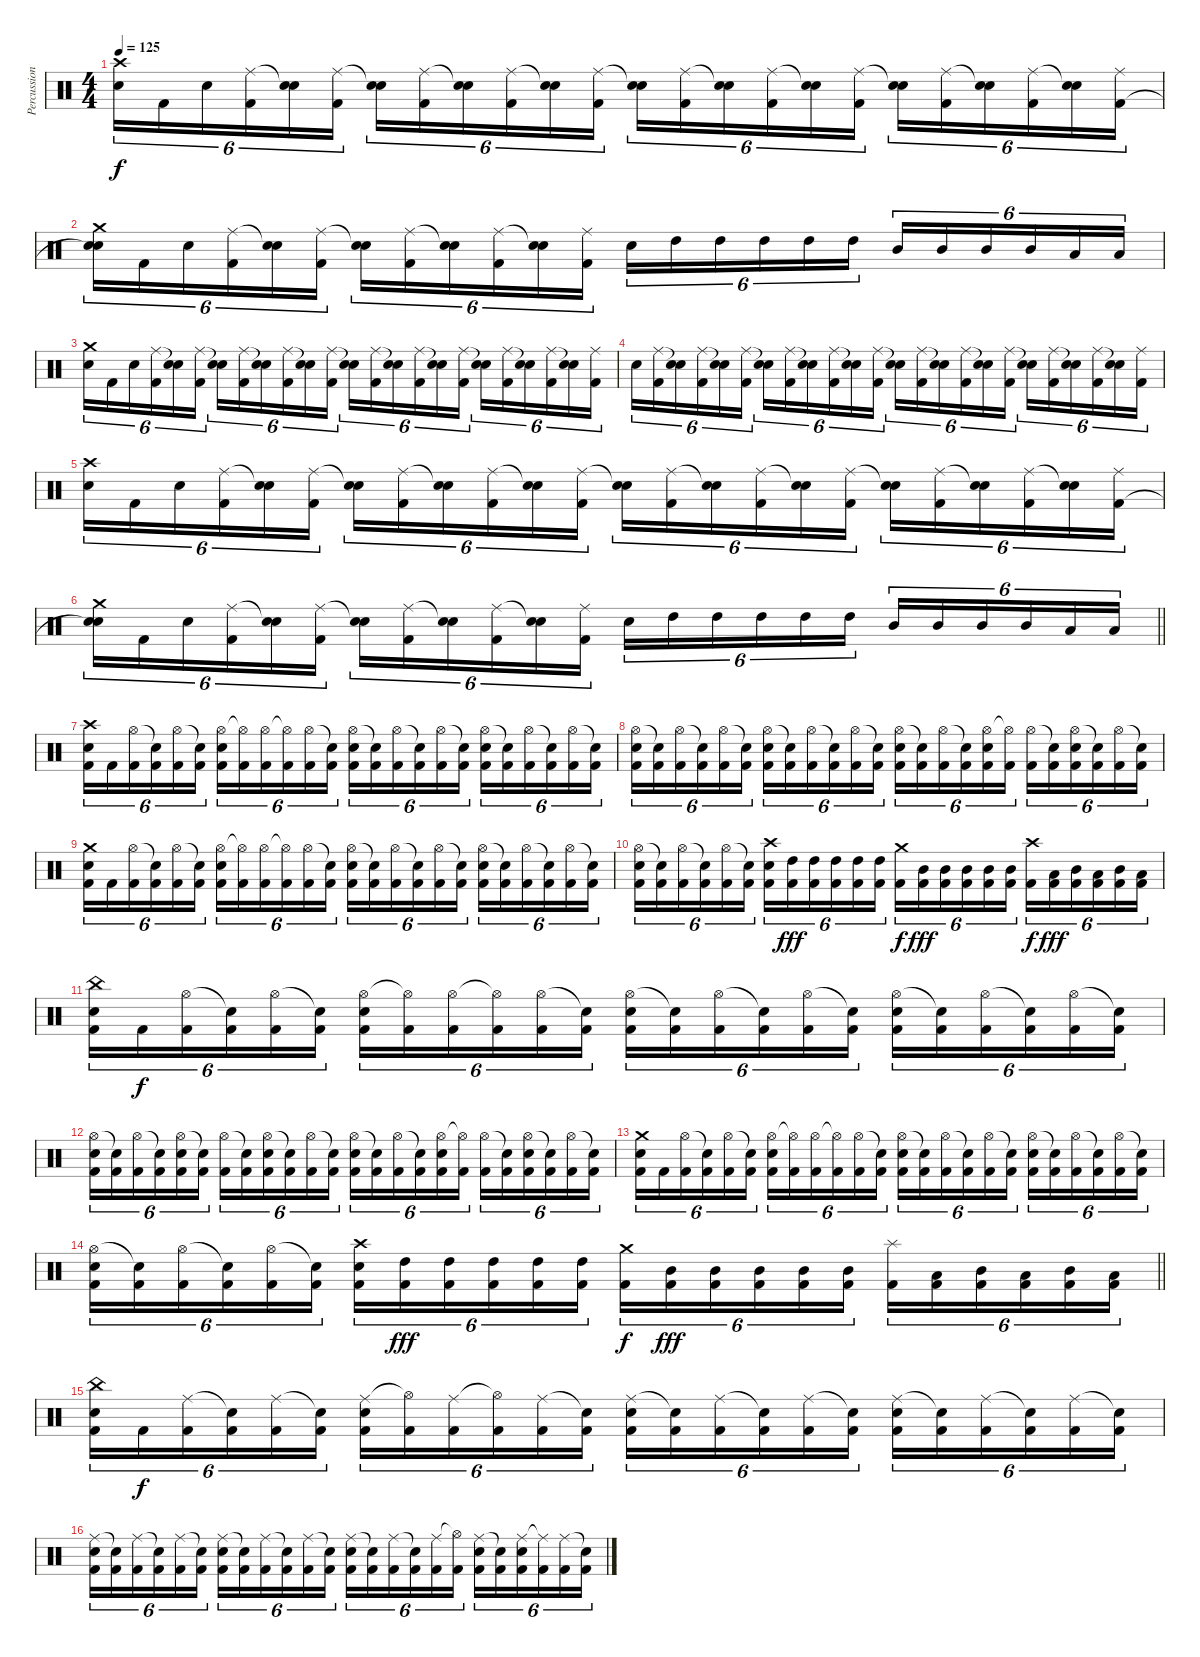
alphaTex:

\track ("Percussion" "Percussion") {instrument percussion}
\staff {score}
\articulation defaults
\ts (4 4)
\tempo 125
\clef neutral
\ks c
("Crash high (hit)" "Snare (hit) 2").16{tu (6 4) dy f} "Kick (hit) 2".16{tu (6 4)} "Snare (hit) 2".16{tu (6 4)} ("Ride (middle)" "Kick (hit) 2").16{tu (6 4)} ("Snare (hit)"{t} "Snare (hit) 2").16{tu (6 4)} ("Ride (middle)" "Kick (hit) 2").16{tu (6 4)} ("Snare (hit)"{t} "Snare (hit) 2").16{tu (6 4)} ("Ride (middle)" "Kick (hit) 2").16{tu (6 4)} ("Snare (hit)"{t} "Snare (hit) 2").16{tu (6 4)} ("Ride (middle)" "Kick (hit) 2").16{tu (6 4)} ("Snare (hit)"{t} "Snare (hit) 2").16{tu (6 4)} ("Ride (middle)" "Kick (hit) 2").16{tu (6 4)} ("Snare (hit)"{t} "Snare (hit) 2").16{tu (6 4)} ("Ride (middle)" "Kick (hit) 2").16{tu (6 4)} ("Snare (hit)"{t} "Snare (hit) 2").16{tu (6 4)} ("Ride (middle)" "Kick (hit) 2").16{tu (6 4)} ("Snare (hit)"{t} "Snare (hit) 2").16{tu (6 4)} ("Ride (middle)" "Kick (hit) 2").16{tu (6 4)} ("Snare (hit)"{t} "Snare (hit) 2").16{tu (6 4)} ("Ride (middle)" "Kick (hit) 2").16{tu (6 4)} ("Snare (hit)"{t} "Snare (hit) 2").16{tu (6 4)} ("Ride (middle)" "Kick (hit) 2").16{tu (6 4)} ("Snare (hit)"{t} "Snare (hit) 2").16{tu (6 4)} ("Ride (middle)" "Kick (hit) 2").16{tu (6 4)} |
("Crash medium (hit)" "Snare (hit)"{t} "Snare (hit) 2").16{tu (6 4)} "Kick (hit) 2".16{tu (6 4)} "Snare (hit) 2".16{tu (6 4)} ("Ride (middle)" "Kick (hit) 2").16{tu (6 4)} ("Snare (hit)"{t} "Snare (hit) 2").16{tu (6 4)} ("Ride (middle)" "Kick (hit) 2").16{tu (6 4)} ("Snare (hit)"{t} "Snare (hit) 2").16{tu (6 4)} ("Ride (middle)" "Kick (hit) 2").16{tu (6 4)} ("Snare (hit)"{t} "Snare (hit) 2").16{tu (6 4)} ("Ride (middle)" "Kick (hit) 2").16{tu (6 4)} ("Snare (hit)"{t} "Snare (hit) 2").16{tu (6 4)} ("Ride (middle)" "Kick (hit) 2").16{tu (6 4)} "Snare (hit) 2".16{tu (6 4)} "High Tom (hit)".16{tu (6 4)} "High Tom (hit)".16{tu (6 4)} "High Tom (hit)".16{tu (6 4)} "High Tom (hit)".16{tu (6 4)} "High Tom (hit)".16{tu (6 4)} "Mid Tom (hit)".16{tu (6 4)} "Mid Tom (hit)".16{tu (6 4)} "Mid Tom (hit)".16{tu (6 4)} "Mid Tom (hit)".16{tu (6 4)} "Low Tom (hit)".16{tu (6 4)} "Low Tom (hit)".16{tu (6 4)} |
("Crash medium (hit)" "Snare (hit) 2").16{tu (6 4)} "Kick (hit) 2".16{tu (6 4)} "Snare (hit) 2".16{tu (6 4)} ("Ride (middle)" "Kick (hit) 2").16{tu (6 4)} ("Snare (hit) 2"{t} "Snare (hit) 2").16{tu (6 4)} ("Ride (middle)" "Kick (hit) 2").16{tu (6 4)} ("Snare (hit) 2"{t} "Snare (hit) 2").16{tu (6 4)} ("Ride (middle)" "Kick (hit) 2").16{tu (6 4)} ("Snare (hit) 2"{t} "Snare (hit) 2").16{tu (6 4)} ("Ride (middle)" "Kick (hit) 2").16{tu (6 4)} ("Snare (hit) 2"{t} "Snare (hit) 2").16{tu (6 4)} ("Ride (middle)" "Kick (hit) 2").16{tu (6 4)} ("Snare (hit) 2"{t} "Snare (hit) 2").16{tu (6 4)} ("Ride (middle)" "Kick (hit) 2").16{tu (6 4)} ("Snare (hit) 2"{t} "Snare (hit) 2").16{tu (6 4)} ("Ride (middle)" "Kick (hit) 2").16{tu (6 4)} ("Snare (hit) 2"{t} "Snare (hit) 2").16{tu (6 4)} ("Ride (middle)" "Kick (hit) 2").16{tu (6 4)} ("Snare (hit) 2"{t} "Snare (hit) 2").16{tu (6 4)} ("Ride (middle)" "Kick (hit) 2").16{tu (6 4)} ("Snare (hit) 2"{t} "Snare (hit) 2").16{tu (6 4)} ("Ride (middle)" "Kick (hit) 2").16{tu (6 4)} ("Snare (hit) 2"{t} "Snare (hit) 2").16{tu (6 4)} ("Ride (middle)" "Kick (hit) 2").16{tu (6 4)} |
"Snare (hit) 2".16{tu (6 4)} ("Ride (middle)" "Kick (hit) 2").16{tu (6 4)} ("Snare (hit) 2"{t} "Snare (hit) 2").16{tu (6 4)} ("Ride (middle)" "Kick (hit) 2").16{tu (6 4)} ("Snare (hit) 2"{t} "Snare (hit) 2").16{tu (6 4)} ("Ride (middle)" "Kick (hit) 2").16{tu (6 4)} ("Snare (hit) 2"{t} "Snare (hit) 2").16{tu (6 4)} ("Ride (middle)" "Kick (hit) 2").16{tu (6 4)} ("Snare (hit) 2"{t} "Snare (hit) 2").16{tu (6 4)} ("Ride (middle)" "Kick (hit) 2").16{tu (6 4)} ("Snare (hit) 2"{t} "Snare (hit) 2").16{tu (6 4)} ("Ride (middle)" "Kick (hit) 2").16{tu (6 4)} ("Snare (hit) 2"{t} "Snare (hit) 2").16{tu (6 4)} ("Ride (middle)" "Kick (hit) 2").16{tu (6 4)} ("Snare (hit) 2"{t} "Snare (hit) 2").16{tu (6 4)} ("Ride (middle)" "Kick (hit) 2").16{tu (6 4)} ("Snare (hit) 2"{t} "Snare (hit) 2").16{tu (6 4)} ("Ride (middle)" "Kick (hit) 2").16{tu (6 4)} ("Snare (hit) 2"{t} "Snare (hit) 2").16{tu (6 4)} ("Ride (middle)" "Kick (hit) 2").16{tu (6 4)} ("Snare (hit) 2"{t} "Snare (hit) 2").16{tu (6 4)} ("Ride (middle)" "Kick (hit) 2").16{tu (6 4)} ("Snare (hit) 2"{t} "Snare (hit) 2").16{tu (6 4)} ("Ride (middle)" "Kick (hit) 2").16{tu (6 4)} |
("Crash high (hit)" "Snare (hit) 2").16{tu (6 4)} "Kick (hit) 2".16{tu (6 4)} "Snare (hit) 2".16{tu (6 4)} ("Ride (middle)" "Kick (hit) 2").16{tu (6 4)} ("Snare (hit)"{t} "Snare (hit) 2").16{tu (6 4)} ("Ride (middle)" "Kick (hit) 2").16{tu (6 4)} ("Snare (hit)"{t} "Snare (hit) 2").16{tu (6 4)} ("Ride (middle)" "Kick (hit) 2").16{tu (6 4)} ("Snare (hit)"{t} "Snare (hit) 2").16{tu (6 4)} ("Ride (middle)" "Kick (hit) 2").16{tu (6 4)} ("Snare (hit)"{t} "Snare (hit) 2").16{tu (6 4)} ("Ride (middle)" "Kick (hit) 2").16{tu (6 4)} ("Snare (hit)"{t} "Snare (hit) 2").16{tu (6 4)} ("Ride (middle)" "Kick (hit) 2").16{tu (6 4)} ("Snare (hit)"{t} "Snare (hit) 2").16{tu (6 4)} ("Ride (middle)" "Kick (hit) 2").16{tu (6 4)} ("Snare (hit)"{t} "Snare (hit) 2").16{tu (6 4)} ("Ride (middle)" "Kick (hit) 2").16{tu (6 4)} ("Snare (hit)"{t} "Snare (hit) 2").16{tu (6 4)} ("Ride (middle)" "Kick (hit) 2").16{tu (6 4)} ("Snare (hit)"{t} "Snare (hit) 2").16{tu (6 4)} ("Ride (middle)" "Kick (hit) 2").16{tu (6 4)} ("Snare (hit)"{t} "Snare (hit) 2").16{tu (6 4)} ("Ride (middle)" "Kick (hit) 2").16{tu (6 4)} |
\barLineRight lightlight
("Crash medium (hit)" "Snare (hit)"{t} "Snare (hit) 2").16{tu (6 4)} "Kick (hit) 2".16{tu (6 4)} "Snare (hit) 2".16{tu (6 4)} ("Ride (middle)" "Kick (hit) 2").16{tu (6 4)} ("Snare (hit)"{t} "Snare (hit) 2").16{tu (6 4)} ("Ride (middle)" "Kick (hit) 2").16{tu (6 4)} ("Snare (hit)"{t} "Snare (hit) 2").16{tu (6 4)} ("Ride (middle)" "Kick (hit) 2").16{tu (6 4)} ("Snare (hit)"{t} "Snare (hit) 2").16{tu (6 4)} ("Ride (middle)" "Kick (hit) 2").16{tu (6 4)} ("Snare (hit)"{t} "Snare (hit) 2").16{tu (6 4)} ("Ride (middle)" "Kick (hit) 2").16{tu (6 4)} "Snare (hit) 2".16{tu (6 4)} "High Tom (hit)".16{tu (6 4)} "High Tom (hit)".16{tu (6 4)} "High Tom (hit)".16{tu (6 4)} "High Tom (hit)".16{tu (6 4)} "High Tom (hit)".16{tu (6 4)} "Mid Tom (hit)".16{tu (6 4)} "Mid Tom (hit)".16{tu (6 4)} "Mid Tom (hit)".16{tu (6 4)} "Mid Tom (hit)".16{tu (6 4)} "Low Tom (hit)".16{tu (6 4)} "Low Tom (hit)".16{tu (6 4)} |
("Crash high (hit)" "Snare (hit) 2" "Kick (hit) 2").16{tu (6 4)} "Kick (hit) 2".16{tu (6 4)} ("Hi-Hat (open)" "Kick (hit) 2").16{tu (6 4)} ("Snare (hit)"{t} "Kick (hit) 2").16{tu (6 4)} ("Hi-Hat (open)" "Kick (hit) 2").16{tu (6 4)} ("Snare (hit)"{t} "Kick (hit) 2").16{tu (6 4)} ("Hi-Hat (open)" "Snare (hit) 2" "Kick (hit) 2").16{tu (6 4)} ("Hi-Hat (open)"{t} "Kick (hit) 2").16{tu (6 4)} ("Hi-Hat (open)" "Kick (hit) 2").16{tu (6 4)} ("Hi-Hat (open)"{t} "Kick (hit) 2").16{tu (6 4)} ("Hi-Hat (open)" "Kick (hit) 2").16{tu (6 4)} ("Snare (hit)"{t} "Kick (hit) 2").16{tu (6 4)} ("Hi-Hat (open)" "Snare (hit) 2" "Kick (hit) 2").16{tu (6 4)} ("Snare (hit)"{t} "Kick (hit) 2").16{tu (6 4)} ("Hi-Hat (open)" "Kick (hit) 2").16{tu (6 4)} ("Snare (hit)"{t} "Kick (hit) 2").16{tu (6 4)} ("Hi-Hat (open)" "Kick (hit) 2").16{tu (6 4)} ("Snare (hit)"{t} "Kick (hit) 2").16{tu (6 4)} ("Hi-Hat (open)" "Snare (hit) 2" "Kick (hit) 2").16{tu (6 4)} ("Snare (hit)"{t} "Kick (hit) 2").16{tu (6 4)} ("Hi-Hat (open)" "Kick (hit) 2").16{tu (6 4)} ("Snare (hit)"{t} "Kick (hit) 2").16{tu (6 4)} ("Hi-Hat (open)" "Kick (hit) 2").16{tu (6 4)} ("Snare (hit)"{t} "Kick (hit) 2").16{tu (6 4)} |
("Hi-Hat (open)" "Snare (hit) 2" "Kick (hit) 2").16{tu (6 4)} ("Snare (hit)"{t} "Kick (hit) 2").16{tu (6 4)} ("Hi-Hat (open)" "Kick (hit) 2").16{tu (6 4)} ("Snare (hit)"{t} "Kick (hit) 2").16{tu (6 4)} ("Hi-Hat (open)" "Kick (hit) 2").16{tu (6 4)} ("Snare (hit)"{t} "Kick (hit) 2").16{tu (6 4)} ("Hi-Hat (open)" "Snare (hit) 2" "Kick (hit) 2").16{tu (6 4)} ("Snare (hit)"{t} "Kick (hit) 2").16{tu (6 4)} ("Hi-Hat (open)" "Kick (hit) 2").16{tu (6 4)} ("Snare (hit)"{t} "Kick (hit) 2").16{tu (6 4)} ("Hi-Hat (open)" "Kick (hit) 2").16{tu (6 4)} ("Snare (hit)"{t} "Kick (hit) 2").16{tu (6 4)} ("Hi-Hat (open)" "Snare (hit) 2" "Kick (hit) 2").16{tu (6 4)} ("Snare (hit)"{t} "Kick (hit) 2").16{tu (6 4)} ("Hi-Hat (open)" "Kick (hit) 2").16{tu (6 4)} ("Snare (hit)"{t} "Kick (hit) 2").16{tu (6 4)} ("Hi-Hat (open)" "Snare (hit) 2" "Kick (hit) 2").16{tu (6 4)} ("Hi-Hat (open)"{t} "Kick (hit) 2").16{tu (6 4)} ("Hi-Hat (open)" "Kick (hit) 2").16{tu (6 4)} ("Snare (hit)"{t} "Kick (hit) 2").16{tu (6 4)} ("Hi-Hat (open)" "Snare (hit) 2" "Kick (hit) 2").16{tu (6 4)} ("Snare (hit)"{t} "Kick (hit) 2").16{tu (6 4)} ("Hi-Hat (open)" "Kick (hit) 2").16{tu (6 4)} ("Snare (hit)"{t} "Kick (hit) 2").16{tu (6 4)} |
("Crash medium (hit)" "Snare (hit) 2" "Kick (hit) 2").16{tu (6 4)} "Kick (hit) 2".16{tu (6 4)} ("Hi-Hat (open)" "Kick (hit) 2").16{tu (6 4)} ("Snare (hit)"{t} "Kick (hit) 2").16{tu (6 4)} ("Hi-Hat (open)" "Kick (hit) 2").16{tu (6 4)} ("Snare (hit)"{t} "Kick (hit) 2").16{tu (6 4)} ("Hi-Hat (open)" "Snare (hit) 2" "Kick (hit) 2").16{tu (6 4)} ("Hi-Hat (open)"{t} "Kick (hit) 2").16{tu (6 4)} ("Hi-Hat (open)" "Kick (hit) 2").16{tu (6 4)} ("Hi-Hat (open)"{t} "Kick (hit) 2").16{tu (6 4)} ("Hi-Hat (open)" "Kick (hit) 2").16{tu (6 4)} ("Snare (hit)"{t} "Kick (hit) 2").16{tu (6 4)} ("Hi-Hat (open)" "Snare (hit) 2" "Kick (hit) 2").16{tu (6 4)} ("Snare (hit)"{t} "Kick (hit) 2").16{tu (6 4)} ("Hi-Hat (open)" "Kick (hit) 2").16{tu (6 4)} ("Snare (hit)"{t} "Kick (hit) 2").16{tu (6 4)} ("Hi-Hat (open)" "Kick (hit) 2").16{tu (6 4)} ("Snare (hit)"{t} "Kick (hit) 2").16{tu (6 4)} ("Hi-Hat (open)" "Snare (hit) 2" "Kick (hit) 2").16{tu (6 4)} ("Snare (hit)"{t} "Kick (hit) 2").16{tu (6 4)} ("Hi-Hat (open)" "Kick (hit) 2").16{tu (6 4)} ("Snare (hit)"{t} "Kick (hit) 2").16{tu (6 4)} ("Hi-Hat (open)" "Kick (hit) 2").16{tu (6 4)} ("Snare (hit)"{t} "Kick (hit) 2").16{tu (6 4)} |
("Hi-Hat (open)" "Snare (hit) 2" "Kick (hit) 2").16{tu (6 4)} ("Snare (hit)"{t} "Kick (hit) 2").16{tu (6 4)} ("Hi-Hat (open)" "Kick (hit) 2").16{tu (6 4)} ("Snare (hit)"{t} "Kick (hit) 2").16{tu (6 4)} ("Hi-Hat (open)" "Kick (hit) 2").16{tu (6 4)} ("Snare (hit)"{t} "Kick (hit) 2").16{tu (6 4)} ("Crash high (hit)" "Snare (hit) 2" "Kick (hit) 2").16{tu (6 4)} ("High Tom (hit)" "Kick (hit) 2").16{tu (6 4) dy fff} ("High Tom (hit)" "Kick (hit) 2").16{tu (6 4)} ("High Tom (hit)" "Kick (hit) 2").16{tu (6 4)} ("High Tom (hit)" "Kick (hit) 2").16{tu (6 4)} ("High Tom (hit)" "Kick (hit) 2").16{tu (6 4)} ("Crash medium (hit)" "Kick (hit) 2").16{tu (6 4) dy f} ("Mid Tom (hit)" "Kick (hit) 2").16{tu (6 4) dy fff} ("Mid Tom (hit)" "Kick (hit) 2").16{tu (6 4)} ("Mid Tom (hit)" "Kick (hit) 2").16{tu (6 4)} ("Mid Tom (hit)" "Kick (hit) 2").16{tu (6 4)} ("Mid Tom (hit)" "Kick (hit) 2").16{tu (6 4)} ("Crash high (hit)" "Kick (hit) 2").16{tu (6 4) dy f} ("Low Tom (hit)" "Kick (hit) 2").16{tu (6 4) dy fff} ("Mid Tom (hit)" "Kick (hit) 2").16{tu (6 4)} ("Low Tom (hit)" "Kick (hit) 2").16{tu (6 4)} ("Mid Tom (hit)" "Kick (hit) 2").16{tu (6 4)} ("Low Tom (hit)" "Kick (hit) 2").16{tu (6 4)} |
("China (hit)" "Snare (hit) 2" "Kick (hit) 2").16{tu (6 4)} "Kick (hit) 2".16{tu (6 4) dy f} ("Hi-Hat (open)" "Kick (hit) 2").16{tu (6 4)} ("Snare (hit)"{t} "Kick (hit) 2").16{tu (6 4)} ("Hi-Hat (open)" "Kick (hit) 2").16{tu (6 4)} ("Snare (hit)"{t} "Kick (hit) 2").16{tu (6 4)} ("Hi-Hat (open)" "Snare (hit) 2" "Kick (hit) 2").16{tu (6 4)} ("Hi-Hat (open)"{t} "Kick (hit) 2").16{tu (6 4)} ("Hi-Hat (open)" "Kick (hit) 2").16{tu (6 4)} ("Hi-Hat (open)"{t} "Kick (hit) 2").16{tu (6 4)} ("Hi-Hat (open)" "Kick (hit) 2").16{tu (6 4)} ("Snare (hit)"{t} "Kick (hit) 2").16{tu (6 4)} ("Hi-Hat (open)" "Snare (hit) 2" "Kick (hit) 2").16{tu (6 4)} ("Snare (hit)"{t} "Kick (hit) 2").16{tu (6 4)} ("Hi-Hat (open)" "Kick (hit) 2").16{tu (6 4)} ("Snare (hit)"{t} "Kick (hit) 2").16{tu (6 4)} ("Hi-Hat (open)" "Kick (hit) 2").16{tu (6 4)} ("Snare (hit)"{t} "Kick (hit) 2").16{tu (6 4)} ("Hi-Hat (open)" "Snare (hit) 2" "Kick (hit) 2").16{tu (6 4)} ("Snare (hit)"{t} "Kick (hit) 2").16{tu (6 4)} ("Hi-Hat (open)" "Kick (hit) 2").16{tu (6 4)} ("Snare (hit)"{t} "Kick (hit) 2").16{tu (6 4)} ("Hi-Hat (open)" "Kick (hit) 2").16{tu (6 4)} ("Snare (hit)"{t} "Kick (hit) 2").16{tu (6 4)} |
("Hi-Hat (open)" "Snare (hit) 2" "Kick (hit) 2").16{tu (6 4)} ("Snare (hit)"{t} "Kick (hit) 2").16{tu (6 4)} ("Hi-Hat (open)" "Kick (hit) 2").16{tu (6 4)} ("Snare (hit)"{t} "Kick (hit) 2").16{tu (6 4)} ("Hi-Hat (open)" "Snare (hit) 2" "Kick (hit) 2").16{tu (6 4)} ("Snare (hit)"{t} "Kick (hit) 2").16{tu (6 4)} ("Hi-Hat (open)" "Kick (hit) 2").16{tu (6 4)} ("Snare (hit)"{t} "Kick (hit) 2").16{tu (6 4)} ("Hi-Hat (open)" "Snare (hit) 2" "Kick (hit) 2").16{tu (6 4)} ("Snare (hit)"{t} "Kick (hit) 2").16{tu (6 4)} ("Hi-Hat (open)" "Kick (hit) 2").16{tu (6 4)} ("Snare (hit)"{t} "Kick (hit) 2").16{tu (6 4)} ("Hi-Hat (open)" "Snare (hit) 2" "Kick (hit) 2").16{tu (6 4)} ("Snare (hit)"{t} "Kick (hit) 2").16{tu (6 4)} ("Hi-Hat (open)" "Kick (hit) 2").16{tu (6 4)} ("Snare (hit)"{t} "Kick (hit) 2").16{tu (6 4)} ("Hi-Hat (open)" "Snare (hit) 2" "Kick (hit) 2").16{tu (6 4)} ("Hi-Hat (open)"{t} "Kick (hit) 2").16{tu (6 4)} ("Hi-Hat (open)" "Kick (hit) 2").16{tu (6 4)} ("Snare (hit)"{t} "Kick (hit) 2").16{tu (6 4)} ("Hi-Hat (open)" "Snare (hit) 2" "Kick (hit) 2").16{tu (6 4)} ("Snare (hit)"{t} "Kick (hit) 2").16{tu (6 4)} ("Hi-Hat (open)" "Kick (hit) 2").16{tu (6 4)} ("Snare (hit)"{t} "Kick (hit) 2").16{tu (6 4)} |
("Crash medium (hit)" "Snare (hit) 2" "Kick (hit) 2").16{tu (6 4)} "Kick (hit) 2".16{tu (6 4)} ("Hi-Hat (open)" "Kick (hit) 2").16{tu (6 4)} ("Snare (hit)"{t} "Kick (hit) 2").16{tu (6 4)} ("Hi-Hat (open)" "Kick (hit) 2").16{tu (6 4)} ("Snare (hit)"{t} "Kick (hit) 2").16{tu (6 4)} ("Hi-Hat (open)" "Snare (hit) 2" "Kick (hit) 2").16{tu (6 4)} ("Hi-Hat (open)"{t} "Kick (hit) 2").16{tu (6 4)} ("Hi-Hat (open)" "Kick (hit) 2").16{tu (6 4)} ("Hi-Hat (open)"{t} "Kick (hit) 2").16{tu (6 4)} ("Hi-Hat (open)" "Kick (hit) 2").16{tu (6 4)} ("Snare (hit)"{t} "Kick (hit) 2").16{tu (6 4)} ("Hi-Hat (open)" "Snare (hit) 2" "Kick (hit) 2").16{tu (6 4)} ("Snare (hit)"{t} "Kick (hit) 2").16{tu (6 4)} ("Hi-Hat (open)" "Kick (hit) 2").16{tu (6 4)} ("Snare (hit)"{t} "Kick (hit) 2").16{tu (6 4)} ("Hi-Hat (open)" "Kick (hit) 2").16{tu (6 4)} ("Snare (hit)"{t} "Kick (hit) 2").16{tu (6 4)} ("Hi-Hat (open)" "Snare (hit) 2" "Kick (hit) 2").16{tu (6 4)} ("Snare (hit)"{t} "Kick (hit) 2").16{tu (6 4)} ("Hi-Hat (open)" "Kick (hit) 2").16{tu (6 4)} ("Snare (hit)"{t} "Kick (hit) 2").16{tu (6 4)} ("Hi-Hat (open)" "Kick (hit) 2").16{tu (6 4)} ("Snare (hit)"{t} "Kick (hit) 2").16{tu (6 4)} |
\barLineRight lightlight
("Hi-Hat (open)" "Snare (hit) 2" "Kick (hit) 2").16{tu (6 4)} ("Snare (hit)"{t} "Kick (hit) 2").16{tu (6 4)} ("Hi-Hat (open)" "Kick (hit) 2").16{tu (6 4)} ("Snare (hit)"{t} "Kick (hit) 2").16{tu (6 4)} ("Hi-Hat (open)" "Kick (hit) 2").16{tu (6 4)} ("Snare (hit)"{t} "Kick (hit) 2").16{tu (6 4)} ("Crash high (hit)" "Snare (hit) 2" "Kick (hit) 2").16{tu (6 4)} ("High Tom (hit)" "Kick (hit) 2").16{tu (6 4) dy fff} ("High Tom (hit)" "Kick (hit) 2").16{tu (6 4)} ("High Tom (hit)" "Kick (hit) 2").16{tu (6 4)} ("High Tom (hit)" "Kick (hit) 2").16{tu (6 4)} ("High Tom (hit)" "Kick (hit) 2").16{tu (6 4)} ("Crash medium (hit)" "Kick (hit) 2").16{tu (6 4) dy f} ("Mid Tom (hit)" "Kick (hit) 2").16{tu (6 4) dy fff} ("Mid Tom (hit)" "Kick (hit) 2").16{tu (6 4)} ("Mid Tom (hit)" "Kick (hit) 2").16{tu (6 4)} ("Mid Tom (hit)" "Kick (hit) 2").16{tu (6 4)} ("Mid Tom (hit)" "Kick (hit) 2").16{tu (6 4)} ("Splash (hit)" "Kick (hit) 2").16{tu (6 4)} ("Low Tom (hit)" "Kick (hit) 2").16{tu (6 4)} ("Mid Tom (hit)" "Kick (hit) 2").16{tu (6 4)} ("Low Tom (hit)" "Kick (hit) 2").16{tu (6 4)} ("Mid Tom (hit)" "Kick (hit) 2").16{tu (6 4)} ("Low Tom (hit)" "Kick (hit) 2").16{tu (6 4)} |
("China (hit)" "Snare (hit) 2" "Kick (hit) 2").16{tu (6 4)} "Kick (hit) 2".16{tu (6 4) dy f} ("Ride (middle)" "Kick (hit) 2").16{tu (6 4)} ("Snare (hit)"{t} "Kick (hit) 2").16{tu (6 4)} ("Ride (middle)" "Kick (hit) 2").16{tu (6 4)} ("Snare (hit)"{t} "Kick (hit) 2").16{tu (6 4)} ("Ride (middle)" "Snare (hit) 2" "Kick (hit) 2").16{tu (6 4)} ("Hi-Hat (open)"{t} "Kick (hit) 2").16{tu (6 4)} ("Ride (middle)" "Kick (hit) 2").16{tu (6 4)} ("Hi-Hat (open)"{t} "Kick (hit) 2").16{tu (6 4)} ("Ride (middle)" "Kick (hit) 2").16{tu (6 4)} ("Snare (hit)"{t} "Kick (hit) 2").16{tu (6 4)} ("Ride (middle)" "Snare (hit) 2" "Kick (hit) 2").16{tu (6 4)} ("Snare (hit)"{t} "Kick (hit) 2").16{tu (6 4)} ("Ride (middle)" "Kick (hit) 2").16{tu (6 4)} ("Snare (hit)"{t} "Kick (hit) 2").16{tu (6 4)} ("Ride (middle)" "Kick (hit) 2").16{tu (6 4)} ("Snare (hit)"{t} "Kick (hit) 2").16{tu (6 4)} ("Ride (middle)" "Snare (hit) 2" "Kick (hit) 2").16{tu (6 4)} ("Snare (hit)"{t} "Kick (hit) 2").16{tu (6 4)} ("Ride (middle)" "Kick (hit) 2").16{tu (6 4)} ("Snare (hit)"{t} "Kick (hit) 2").16{tu (6 4)} ("Ride (middle)" "Kick (hit) 2").16{tu (6 4)} ("Snare (hit)"{t} "Kick (hit) 2").16{tu (6 4)} |
("Ride (middle)" "Snare (hit) 2" "Kick (hit) 2").16{tu (6 4)} ("Snare (hit)"{t} "Kick (hit) 2").16{tu (6 4)} ("Ride (middle)" "Kick (hit) 2").16{tu (6 4)} ("Snare (hit)"{t} "Kick (hit) 2").16{tu (6 4)} ("Ride (middle)" "Kick (hit) 2").16{tu (6 4)} ("Snare (hit)"{t} "Kick (hit) 2").16{tu (6 4)} ("Ride (middle)" "Snare (hit) 2" "Kick (hit) 2").16{tu (6 4)} ("Snare (hit)"{t} "Kick (hit) 2").16{tu (6 4)} ("Ride (middle)" "Kick (hit) 2").16{tu (6 4)} ("Snare (hit)"{t} "Kick (hit) 2").16{tu (6 4)} ("Ride (middle)" "Kick (hit) 2").16{tu (6 4)} ("Snare (hit)"{t} "Kick (hit) 2").16{tu (6 4)} ("Ride (middle)" "Snare (hit) 2" "Kick (hit) 2").16{tu (6 4)} ("Snare (hit)"{t} "Kick (hit) 2").16{tu (6 4)} ("Ride (middle)" "Kick (hit) 2").16{tu (6 4)} ("Snare (hit)"{t} "Kick (hit) 2").16{tu (6 4)} ("Ride (middle)" "Kick (hit) 2").16{tu (6 4)} ("Hi-Hat (open)"{t} "Kick (hit) 2").16{tu (6 4)} ("Ride (middle)" "Snare (hit) 2" "Kick (hit) 2").16{tu (6 4)} ("Snare (hit)"{t} "Kick (hit) 2").16{tu (6 4)} ("Ride (middle)" "Snare (hit) 2" "Kick (hit) 2").16{tu (6 4)} ("Ride (middle)"{t} "Kick (hit) 2").16{tu (6 4)} ("Ride (middle)" "Kick (hit) 2").16{tu (6 4)} ("Snare (hit)"{t} "Kick (hit) 2").16{tu (6 4)}
